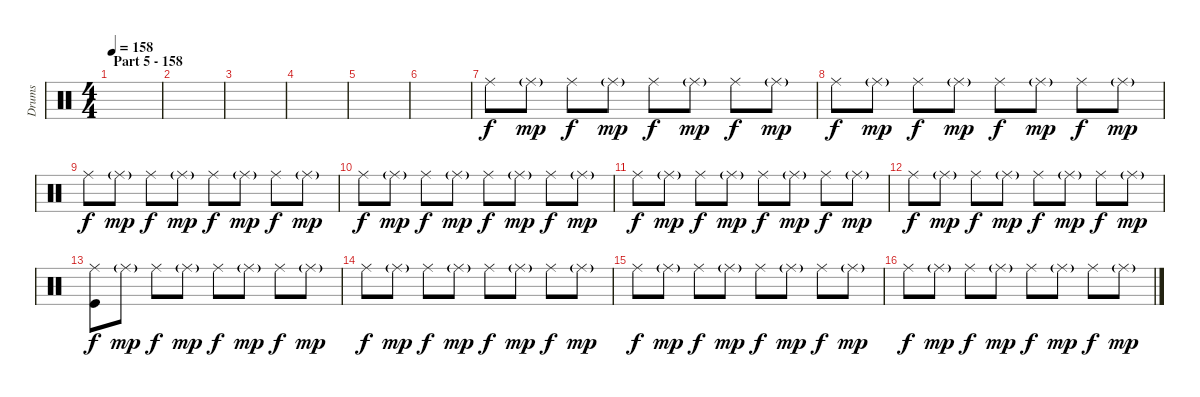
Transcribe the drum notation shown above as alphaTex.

\track ("Drums" "Drums") {instrument percussion}
\staff {score}
\articulation defaults
\ts (4 4)
\section ("" "Part 5 - 158")
\tempo 158
\clef neutral
\ks c
|
|
|
|
|
|
"Ride (middle)".8 "Ride (middle)"{g}.8{dy mp} "Ride (middle)".8{dy f} "Ride (middle)"{g}.8{dy mp} "Ride (middle)".8{dy f} "Ride (middle)"{g}.8{dy mp} "Ride (middle)".8{dy f} "Ride (middle)"{g}.8{dy mp} |
"Ride (middle)".8{dy f} "Ride (middle)"{g}.8{dy mp} "Ride (middle)".8{dy f} "Ride (middle)"{g}.8{dy mp} "Ride (middle)".8{dy f} "Ride (middle)"{g}.8{dy mp} "Ride (middle)".8{dy f} "Ride (middle)"{g}.8{dy mp} |
"Ride (middle)".8{dy f} "Ride (middle)"{g}.8{dy mp} "Ride (middle)".8{dy f} "Ride (middle)"{g}.8{dy mp} "Ride (middle)".8{dy f} "Ride (middle)"{g}.8{dy mp} "Ride (middle)".8{dy f} "Ride (middle)"{g}.8{dy mp} |
"Ride (middle)".8{dy f} "Ride (middle)"{g}.8{dy mp} "Ride (middle)".8{dy f} "Ride (middle)"{g}.8{dy mp} "Ride (middle)".8{dy f} "Ride (middle)"{g}.8{dy mp} "Ride (middle)".8{dy f} "Ride (middle)"{g}.8{dy mp} |
"Ride (middle)".8{dy f} "Ride (middle)"{g}.8{dy mp} "Ride (middle)".8{dy f} "Ride (middle)"{g}.8{dy mp} "Ride (middle)".8{dy f} "Ride (middle)"{g}.8{dy mp} "Ride (middle)".8{dy f} "Ride (middle)"{g}.8{dy mp} |
"Ride (middle)".8{dy f} "Ride (middle)"{g}.8{dy mp} "Ride (middle)".8{dy f} "Ride (middle)"{g}.8{dy mp} "Ride (middle)".8{dy f} "Ride (middle)"{g}.8{dy mp} "Ride (middle)".8{dy f} "Ride (middle)"{g}.8{dy mp} |
("Ride (middle)" "Kick (hit)").8{dy f} "Ride (middle)"{g}.8{dy mp} "Ride (middle)".8{dy f} "Ride (middle)"{g}.8{dy mp} "Ride (middle)".8{dy f} "Ride (middle)"{g}.8{dy mp} "Ride (middle)".8{dy f} "Ride (middle)"{g}.8{dy mp} |
"Ride (middle)".8{dy f} "Ride (middle)"{g}.8{dy mp} "Ride (middle)".8{dy f} "Ride (middle)"{g}.8{dy mp} "Ride (middle)".8{dy f} "Ride (middle)"{g}.8{dy mp} "Ride (middle)".8{dy f} "Ride (middle)"{g}.8{dy mp} |
"Ride (middle)".8{dy f} "Ride (middle)"{g}.8{dy mp} "Ride (middle)".8{dy f} "Ride (middle)"{g}.8{dy mp} "Ride (middle)".8{dy f} "Ride (middle)"{g}.8{dy mp} "Ride (middle)".8{dy f} "Ride (middle)"{g}.8{dy mp} |
"Ride (middle)".8{dy f} "Ride (middle)"{g}.8{dy mp} "Ride (middle)".8{dy f} "Ride (middle)"{g}.8{dy mp} "Ride (middle)".8{dy f} "Ride (middle)"{g}.8{dy mp} "Ride (middle)".8{dy f} "Ride (middle)"{g}.8{dy mp}
